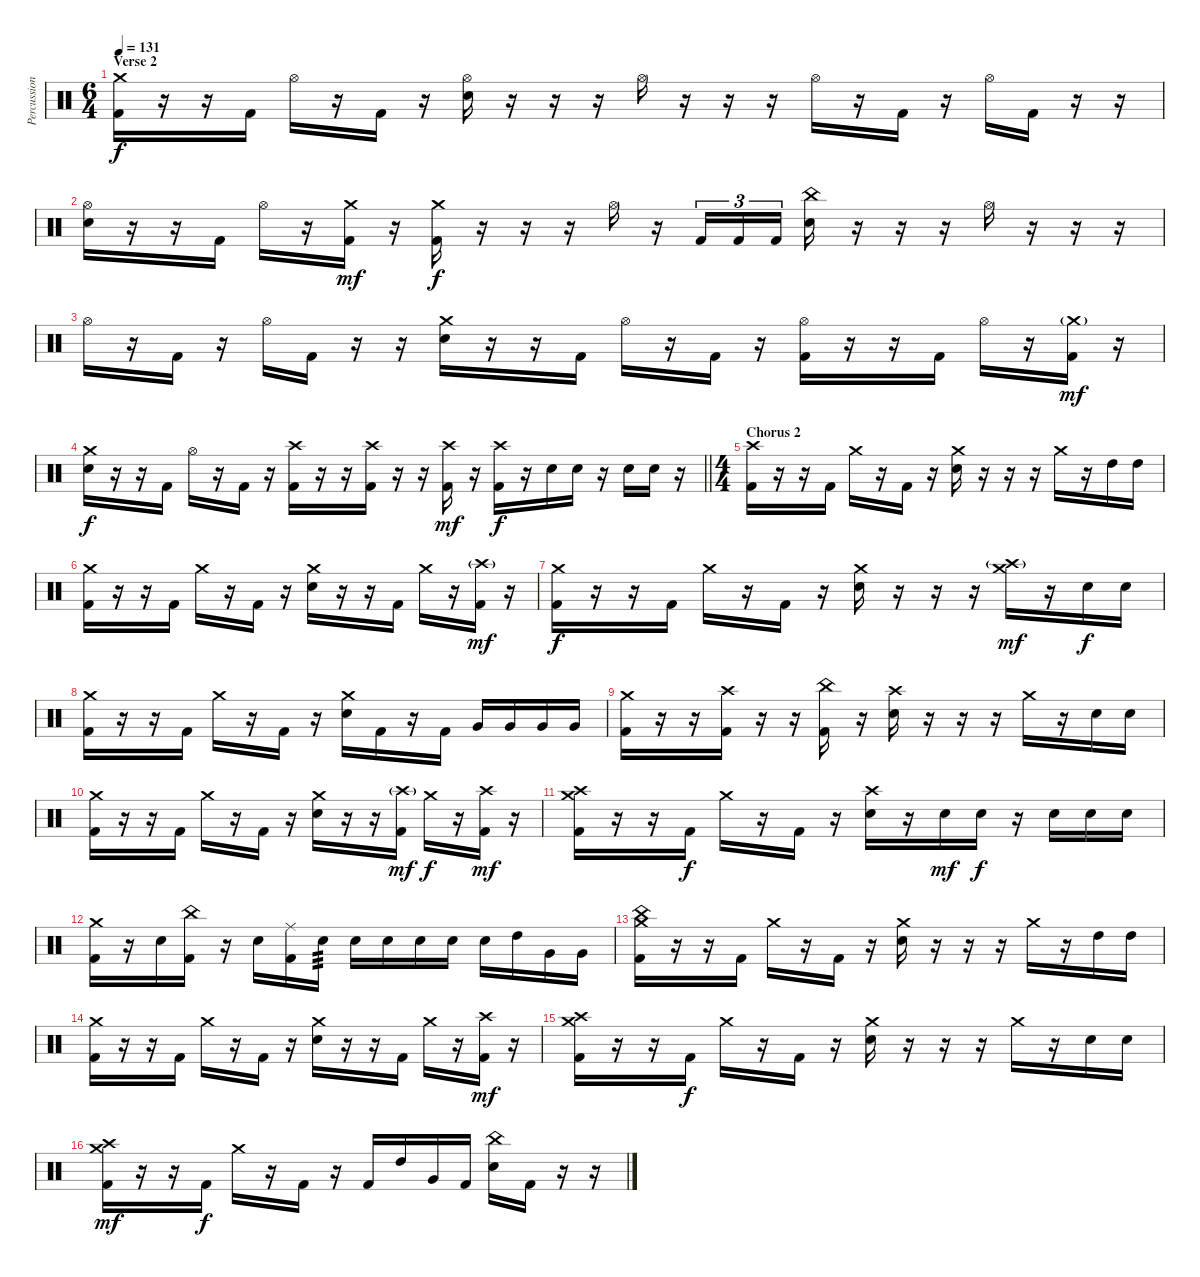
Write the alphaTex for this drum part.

\track ("Percussion" "Percussion") {instrument percussion}
\staff {score}
\articulation defaults
\ts (6 4)
\section ("" "Verse 2")
\tempo 131
\clef neutral
\ks c
("Crash medium (hit)" "Kick (hit) 2").16{dy f} r.16 r.16 "Kick (hit) 2".16 "Hi-Hat (open)".16 r.16 "Kick (hit) 2".16 r.16 ("Hi-Hat (open)" "Snare (hit) 2").16 r.16 r.16 r.16 "Hi-Hat (open)".16 r.16 r.16 r.16 "Hi-Hat (open)".16 r.16 "Kick (hit) 2".16 r.16 "Hi-Hat (open)".16 "Kick (hit) 2".16 r.16 r.16 |
("Hi-Hat (open)" "Snare (hit) 2").16 r.16 r.16 "Kick (hit) 2".16 "Hi-Hat (open)".16 r.16 ("Crash medium (hit)" "Kick (hit) 2").16{dy mf} r.16 ("Crash medium (hit)" "Kick (hit) 2").16{dy f} r.16 r.16 r.16 "Hi-Hat (open)".16 r.16 "Kick (hit) 2".16{tu (3 2)} "Kick (hit) 2".16{tu (3 2)} "Kick (hit) 2".16{tu (3 2) beam splitsecondary} ("China (hit)" "Snare (hit) 2").16 r.16 r.16 r.16 "Hi-Hat (open)".16 r.16 r.16 r.16 |
"Hi-Hat (open)".16 r.16 "Kick (hit) 2".16 r.16 "Hi-Hat (open)".16 "Kick (hit) 2".16 r.16 r.16 ("Crash medium (hit)" "Snare (hit) 2").16 r.16 r.16 "Kick (hit) 2".16 "Hi-Hat (open)".16 r.16 "Kick (hit) 2".16 r.16 ("Hi-Hat (open)" "Kick (hit) 2").16 r.16 r.16 "Kick (hit) 2".16 "Hi-Hat (open)".16 r.16 ("Crash medium (hit)"{g} "Kick (hit) 2").16{dy mf} r.16 |
\barLineRight lightlight
("Crash medium (hit)" "Snare (hit) 2").16{dy f} r.16 r.16 "Kick (hit) 2".16 "Hi-Hat (open)".16 r.16 "Kick (hit) 2".16 r.16 ("Crash high (hit)" "Kick (hit) 2").16 r.16 r.16 ("Crash high (hit)" "Kick (hit) 2").16 r.16 r.16 ("Crash high (hit)" "Kick (hit) 2").16{dy mf} r.16 ("Crash high (hit)" "Kick (hit) 2").16{dy f} r.16 "Snare (hit) 2".16 "Snare (hit) 2".16 r.16 "Snare (hit) 2".16 "Snare (hit) 2".16 r.16 |
\ts (4 4)
\section ("" "Chorus 2")
("Crash high (hit)" "Kick (hit) 2").16 r.16 r.16 "Kick (hit) 2".16 "Crash medium (hit)".16 r.16 "Kick (hit) 2".16 r.16 ("Crash medium (hit)" "Snare (hit) 2").16 r.16 r.16 r.16 "Crash medium (hit)".16 r.16 "High Tom (hit)".16 "High Tom (hit)".16 |
("Crash medium (hit)" "Kick (hit) 2").16 r.16 r.16 "Kick (hit) 2".16 "Crash medium (hit)".16 r.16 "Kick (hit) 2".16 r.16 ("Crash medium (hit)" "Snare (hit) 2").16 r.16 r.16 "Kick (hit) 2".16 "Crash medium (hit)".16 r.16 ("Crash high (hit)"{g} "Kick (hit) 2").16{dy mf} r.16 |
("Crash medium (hit)" "Kick (hit) 2").16{dy f} r.16 r.16 "Kick (hit) 2".16 "Crash medium (hit)".16 r.16 "Kick (hit) 2".16 r.16 ("Crash medium (hit)" "Snare (hit) 2").16 r.16 r.16 r.16 ("Crash medium (hit)" "Crash high (hit)"{g}).16{dy mf} r.16 "Snare (hit) 2".16{dy f} "Snare (hit) 2".16 |
("Crash medium (hit)" "Kick (hit) 2").16 r.16 r.16 "Kick (hit) 2".16 "Crash medium (hit)".16 r.16 "Kick (hit) 2".16 r.16 ("Crash medium (hit)" "Snare (hit) 2").16 "Kick (hit) 2".16 r.16 "Kick (hit) 2".16 "Very Low Tom (hit)".16 "Very Low Tom (hit)".16 "Very Low Tom (hit)".16 "Very Low Tom (hit)".16 |
("Crash medium (hit)" "Kick (hit) 2").16 r.16 r.16 ("Crash high (hit)" "Kick (hit) 2").16 r.16 r.16 ("China (hit)" "Kick (hit) 2").16 r.16 ("Crash high (hit)" "Snare (hit) 2").16 r.16 r.16 r.16 "Crash medium (hit)".16 r.16 "Snare (hit) 2".16 "Snare (hit) 2".16 |
("Crash medium (hit)" "Kick (hit) 2").16 r.16 r.16 "Kick (hit) 2".16 "Crash medium (hit)".16 r.16 "Kick (hit) 2".16 r.16 ("Crash medium (hit)" "Snare (hit) 2").16 r.16 r.16 ("Crash high (hit)"{g} "Kick (hit) 2").16{dy mf} "Crash medium (hit)".16{dy f} r.16 ("Crash high (hit)" "Kick (hit) 2").16{dy mf} r.16 |
("Crash medium (hit)" "Crash high (hit)" "Kick (hit) 2").16 r.16 r.16 "Kick (hit) 2".16{dy f} "Crash medium (hit)".16 r.16 "Kick (hit) 2".16 r.16 ("Crash high (hit)" "Snare (hit) 2").16 r.16 "Snare (hit) 2".16{dy mf} "Snare (hit) 2".16{dy f} r.16 "Snare (hit) 2".16 "Snare (hit) 2".16 "Snare (hit) 2".16 |
("Crash medium (hit)" "Kick (hit) 2").16 r.16 "Snare (hit) 2".16 ("China (hit)" "Kick (hit) 2").16 r.16 "Snare (hit) 2".16 ("Ride (middle)" "Kick (hit) 2").16 "Snare (hit) 2".16{tp 3} "Snare (hit) 2".16 "Snare (hit) 2".16 "Snare (hit) 2".16 "Snare (hit) 2".16 "Snare (hit) 2".16 "High Tom (hit)".16 "Very Low Tom (hit)".16 "Very Low Tom (hit)".16 |
("Crash medium (hit)" "China (hit)" "Kick (hit) 2").16 r.16 r.16 "Kick (hit) 2".16 "Crash medium (hit)".16 r.16 "Kick (hit) 2".16 r.16 ("Crash medium (hit)" "Snare (hit) 2").16 r.16 r.16 r.16 "Crash medium (hit)".16 r.16 "High Tom (hit)".16 "High Tom (hit)".16 |
("Crash medium (hit)" "Kick (hit) 2").16 r.16 r.16 "Kick (hit) 2".16 "Crash medium (hit)".16 r.16 "Kick (hit) 2".16 r.16 ("Crash medium (hit)" "Snare (hit) 2").16 r.16 r.16 "Kick (hit) 2".16 "Crash medium (hit)".16 r.16 ("Crash high (hit)" "Kick (hit) 2").16{dy mf} r.16 |
("Crash medium (hit)" "Crash high (hit)" "Kick (hit) 2").16 r.16 r.16 "Kick (hit) 2".16{dy f} "Crash medium (hit)".16 r.16 "Kick (hit) 2".16 r.16 ("Crash medium (hit)" "Snare (hit) 2").16 r.16 r.16 r.16 "Crash medium (hit)".16 r.16 "Snare (hit) 2".16 "Snare (hit) 2".16 |
("Crash medium (hit)" "Crash high (hit)" "Kick (hit) 2").16{dy mf} r.16 r.16 "Kick (hit) 2".16{dy f} "Crash medium (hit)".16 r.16 "Kick (hit) 2".16 r.16 "Kick (hit) 2".16 "High Tom (hit)".16 "Very Low Tom (hit)".16 "Kick (hit) 2".16 ("China (hit)" "Snare (hit) 2").16 "Kick (hit) 2".16 r.16 r.16
